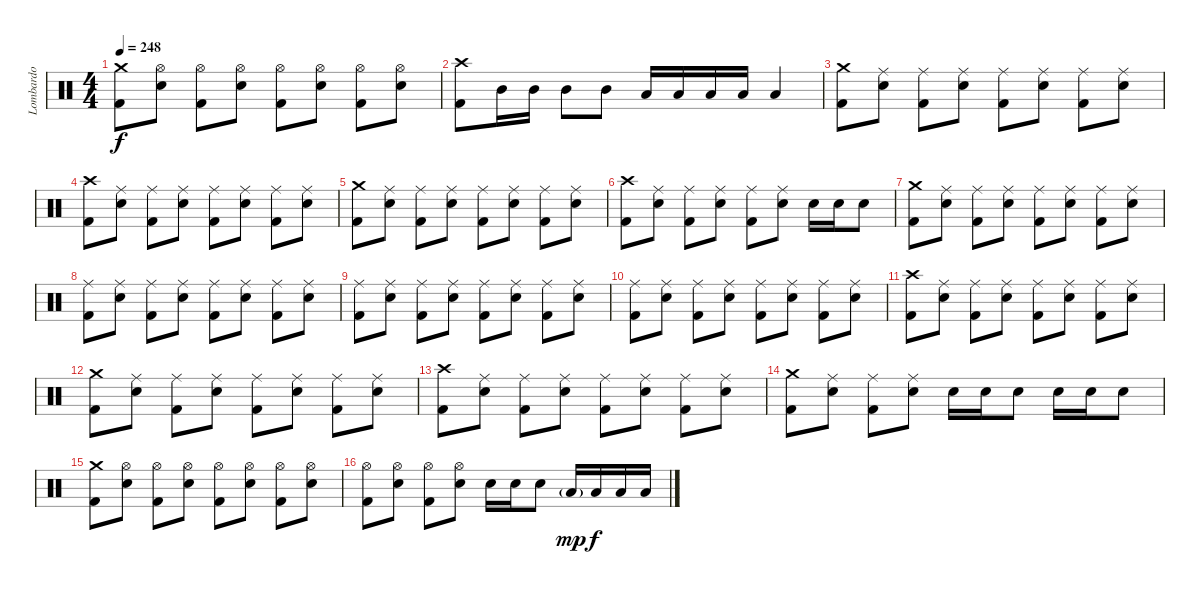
\track ("Lombardo" "Lombardo") {instrument percussion}
\staff {score}
\articulation defaults
\ts (4 4)
\tempo 248
\clef neutral
\ks c
("Crash medium (hit)" "Kick (hit) 2").8{dy f} ("Hi-Hat (open)" "Snare (hit) 2").8 ("Hi-Hat (open)" "Kick (hit) 2").8 ("Hi-Hat (open)" "Snare (hit) 2").8 ("Hi-Hat (open)" "Kick (hit) 2").8 ("Hi-Hat (open)" "Snare (hit) 2").8 ("Hi-Hat (open)" "Kick (hit) 2").8 ("Hi-Hat (open)" "Snare (hit) 2").8 |
("Crash high (hit)" "Kick (hit) 2").8 "Mid Tom (hit)".16 "Mid Tom (hit)".16 "Mid Tom (hit)".8 "Mid Tom (hit)".8 "Low Tom (hit)".16 "Low Tom (hit)".16 "Low Tom (hit)".16 "Low Tom (hit)".16 "Low Tom (hit)".4 |
("Crash medium (hit)" "Kick (hit) 2").8 ("Ride (middle)" "Snare (hit) 2").8 ("Ride (middle)" "Kick (hit) 2").8 ("Ride (middle)" "Snare (hit) 2").8 ("Ride (middle)" "Kick (hit) 2").8 ("Ride (middle)" "Snare (hit) 2").8 ("Ride (middle)" "Kick (hit) 2").8 ("Ride (middle)" "Snare (hit) 2").8 |
("Crash high (hit)" "Kick (hit) 2").8 ("Ride (middle)" "Snare (hit) 2").8 ("Ride (middle)" "Kick (hit) 2").8 ("Ride (middle)" "Snare (hit) 2").8 ("Ride (middle)" "Kick (hit) 2").8 ("Ride (middle)" "Snare (hit) 2").8 ("Ride (middle)" "Kick (hit) 2").8 ("Ride (middle)" "Snare (hit) 2").8 |
("Crash medium (hit)" "Kick (hit) 2").8 ("Ride (middle)" "Snare (hit) 2").8 ("Ride (middle)" "Kick (hit) 2").8 ("Ride (middle)" "Snare (hit) 2").8 ("Ride (middle)" "Kick (hit) 2").8 ("Ride (middle)" "Snare (hit) 2").8 ("Ride (middle)" "Kick (hit) 2").8 ("Ride (middle)" "Snare (hit) 2").8 |
("Crash high (hit)" "Kick (hit) 2").8 ("Ride (middle)" "Snare (hit) 2").8 ("Ride (middle)" "Kick (hit) 2").8 ("Ride (middle)" "Snare (hit) 2").8 ("Ride (middle)" "Kick (hit) 2").8 ("Ride (middle)" "Snare (hit) 2").8 "Snare (hit) 2".16 "Snare (hit) 2".16 "Snare (hit) 2".8 |
("Crash medium (hit)" "Kick (hit) 2").8 ("Ride (middle)" "Snare (hit) 2").8 ("Ride (middle)" "Kick (hit) 2").8 ("Ride (middle)" "Snare (hit) 2").8 ("Ride (middle)" "Kick (hit) 2").8 ("Ride (middle)" "Snare (hit) 2").8 ("Ride (middle)" "Kick (hit) 2").8 ("Ride (middle)" "Snare (hit) 2").8 |
("Ride (middle)" "Kick (hit) 2").8 ("Ride (middle)" "Snare (hit) 2").8 ("Ride (middle)" "Kick (hit) 2").8 ("Ride (middle)" "Snare (hit) 2").8 ("Ride (middle)" "Kick (hit) 2").8 ("Ride (middle)" "Snare (hit) 2").8 ("Ride (middle)" "Kick (hit) 2").8 ("Ride (middle)" "Snare (hit) 2").8 |
("Ride (middle)" "Kick (hit) 2").8 ("Ride (middle)" "Snare (hit) 2").8 ("Ride (middle)" "Kick (hit) 2").8 ("Ride (middle)" "Snare (hit) 2").8 ("Ride (middle)" "Kick (hit) 2").8 ("Ride (middle)" "Snare (hit) 2").8 ("Ride (middle)" "Kick (hit) 2").8 ("Ride (middle)" "Snare (hit) 2").8 |
("Ride (middle)" "Kick (hit) 2").8 ("Ride (middle)" "Snare (hit) 2").8 ("Ride (middle)" "Kick (hit) 2").8 ("Ride (middle)" "Snare (hit) 2").8 ("Ride (middle)" "Kick (hit) 2").8 ("Ride (middle)" "Snare (hit) 2").8 ("Ride (middle)" "Kick (hit) 2").8 ("Ride (middle)" "Snare (hit) 2").8 |
("Crash high (hit)" "Kick (hit) 2").8 ("Ride (middle)" "Snare (hit) 2").8 ("Ride (middle)" "Kick (hit) 2").8 ("Ride (middle)" "Snare (hit) 2").8 ("Ride (middle)" "Kick (hit) 2").8 ("Ride (middle)" "Snare (hit) 2").8 ("Ride (middle)" "Kick (hit) 2").8 ("Ride (middle)" "Snare (hit) 2").8 |
("Crash medium (hit)" "Kick (hit) 2").8 ("Ride (middle)" "Snare (hit) 2").8 ("Ride (middle)" "Kick (hit) 2").8 ("Ride (middle)" "Snare (hit) 2").8 ("Ride (middle)" "Kick (hit) 2").8 ("Ride (middle)" "Snare (hit) 2").8 ("Ride (middle)" "Kick (hit) 2").8 ("Ride (middle)" "Snare (hit) 2").8 |
("Crash high (hit)" "Kick (hit) 2").8 ("Ride (middle)" "Snare (hit) 2").8 ("Ride (middle)" "Kick (hit) 2").8 ("Ride (middle)" "Snare (hit) 2").8 ("Ride (middle)" "Kick (hit) 2").8 ("Ride (middle)" "Snare (hit) 2").8 ("Ride (middle)" "Kick (hit) 2").8 ("Ride (middle)" "Snare (hit) 2").8 |
("Crash medium (hit)" "Kick (hit) 2").8 ("Ride (middle)" "Snare (hit) 2").8 ("Ride (middle)" "Kick (hit) 2").8 ("Ride (middle)" "Snare (hit) 2").8 "Snare (hit) 2".16 "Snare (hit) 2".16 "Snare (hit) 2".8 "Snare (hit) 2".16 "Snare (hit) 2".16 "Snare (hit) 2".8 |
("Crash medium (hit)" "Kick (hit) 2").8 ("Hi-Hat (open)" "Snare (hit) 2").8 ("Hi-Hat (open)" "Kick (hit) 2").8 ("Hi-Hat (open)" "Snare (hit) 2").8 ("Hi-Hat (open)" "Kick (hit) 2").8 ("Hi-Hat (open)" "Snare (hit) 2").8 ("Hi-Hat (open)" "Kick (hit) 2").8 ("Hi-Hat (open)" "Snare (hit) 2").8 |
("Hi-Hat (open)" "Kick (hit) 2").8 ("Hi-Hat (open)" "Snare (hit) 2").8 ("Hi-Hat (open)" "Kick (hit) 2").8 ("Hi-Hat (open)" "Snare (hit) 2").8 "Snare (hit) 2".16 "Snare (hit) 2".16 "Snare (hit) 2".8 "Low Tom (hit)"{g}.16{dy mp} "Low Tom (hit)".16{dy f} "Low Tom (hit)".16 "Low Tom (hit)".16
